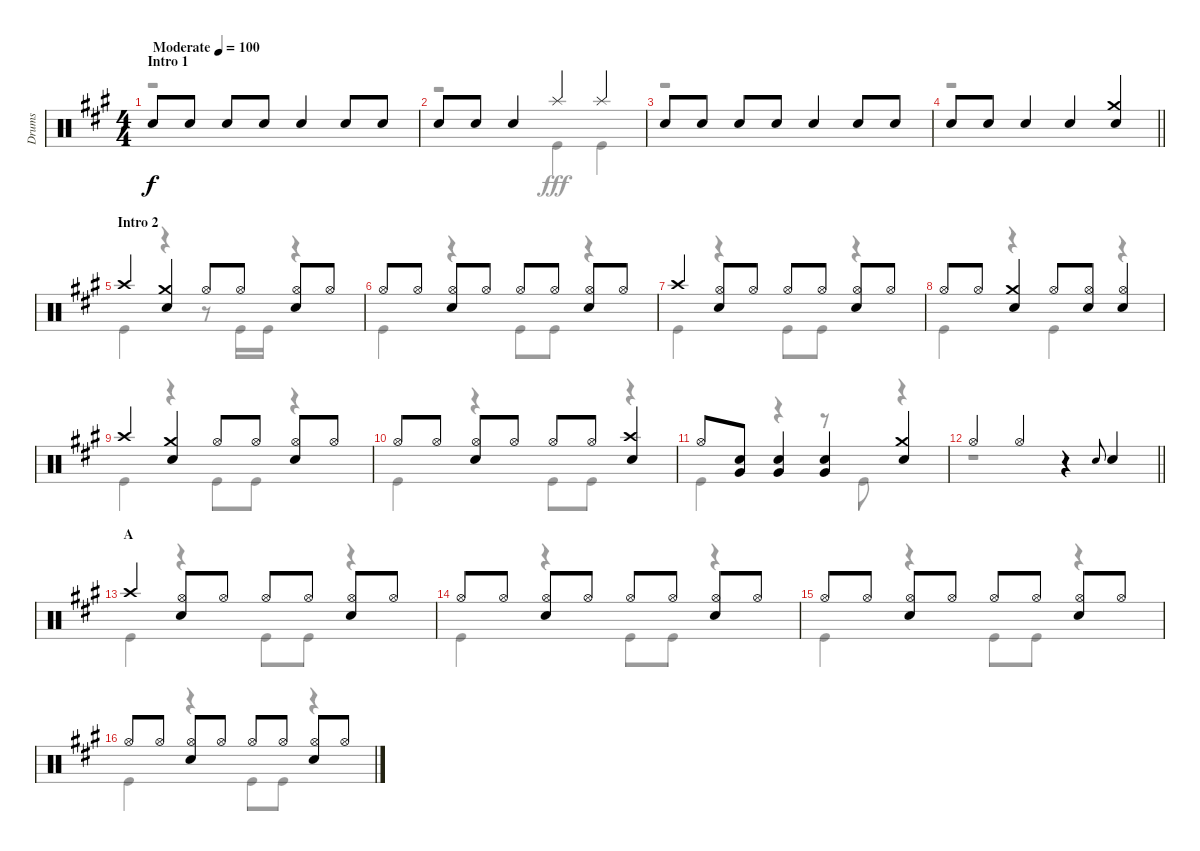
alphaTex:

\track ("Drums" "Drums") {instrument percussion}
\staff {score}
\articulation defaults
\voice
\ts (4 4)
\section ("" "Intro 1")
\tempo (100 "Moderate")
\clef neutral
\ks a "Snare (hit) 2".8{dy f} "Snare (hit) 2".8 "Snare (hit) 2".8 "Snare (hit) 2".8 "Snare (hit) 2".4 "Snare (hit) 2".8 "Snare (hit) 2".8
|
"Snare (hit) 2".8 "Snare (hit) 2".8 "Snare (hit) 2".4 "Splash (hit)".4 "Splash (hit)".4 |
"Snare (hit) 2".8 "Snare (hit) 2".8 "Snare (hit) 2".8 "Snare (hit) 2".8 "Snare (hit) 2".4 "Snare (hit) 2".8 "Snare (hit) 2".8 |
\barLineRight lightlight "Snare (hit) 2".8 "Snare (hit) 2".8 "Snare (hit) 2".4 "Snare (hit) 2".4
("Crash medium (hit)" "Snare (hit) 2").4 |
\section ("" "Intro 2")
"Crash high (hit)".4 ("Crash medium (hit)" "Snare (hit) 2").4 "Hi-Hat (open)".8 "Hi-Hat (open)".8 ("Hi-Hat (open)" "Snare (hit) 2").8 "Hi-Hat (open)".8 |
"Hi-Hat (open)".8 "Hi-Hat (open)".8 ("Hi-Hat (open)" "Snare (hit) 2").8 "Hi-Hat (open)".8 "Hi-Hat (open)".8 "Hi-Hat (open)".8 ("Hi-Hat (open)" "Snare (hit) 2").8 "Hi-Hat (open)".8 |
"Crash high (hit)".4 ("Hi-Hat (open)" "Snare (hit) 2").8 "Hi-Hat (open)".8 "Hi-Hat (open)".8 "Hi-Hat (open)".8 ("Hi-Hat (open)" "Snare (hit) 2").8 "Hi-Hat (open)".8 |
"Hi-Hat (open)".8 "Hi-Hat (open)".8 ("Crash medium (hit)" "Snare (hit) 2").4 "Hi-Hat (open)".8 ("Hi-Hat (open)" "Snare (hit) 2").8 ("Hi-Hat (open)" "Snare (hit) 2").4 |
"Crash high (hit)".4 ("Crash medium (hit)" "Snare (hit) 2").4 "Hi-Hat (open)".8 "Hi-Hat (open)".8 ("Hi-Hat (open)" "Snare (hit) 2").8 "Hi-Hat (open)".8 |
"Hi-Hat (open)".8 "Hi-Hat (open)".8 ("Hi-Hat (open)" "Snare (hit) 2").8 "Hi-Hat (open)".8 "Hi-Hat (open)".8 "Hi-Hat (open)".8 ("Crash high (hit)" "Snare (hit) 2").4 |
"Hi-Hat (open)".8 ("Snare (hit) 2" "Very Low Tom (hit)").8 ("Snare (hit) 2" "Very Low Tom (hit)").4 ("Snare (hit) 2" "Very Low Tom (hit)").4 ("Crash medium (hit)" "Snare (hit) 2").4 |
\barLineRight lightlight "Hi-Hat (open)".4 "Hi-Hat (open)".4
r.4 "Snare (hit) 2".8{gr onbeat} "Snare (hit) 2".4 |
\section ("" "A")
"Crash high (hit)".4 ("Hi-Hat (open)" "Snare (hit) 2").8 "Hi-Hat (open)".8 "Hi-Hat (open)".8 "Hi-Hat (open)".8 ("Hi-Hat (open)" "Snare (hit) 2").8 "Hi-Hat (open)".8 |
"Hi-Hat (open)".8 "Hi-Hat (open)".8 ("Hi-Hat (open)" "Snare (hit) 2").8 "Hi-Hat (open)".8 "Hi-Hat (open)".8 "Hi-Hat (open)".8 ("Hi-Hat (open)" "Snare (hit) 2").8 "Hi-Hat (open)".8 |
"Hi-Hat (open)".8 "Hi-Hat (open)".8 ("Hi-Hat (open)" "Snare (hit) 2").8 "Hi-Hat (open)".8 "Hi-Hat (open)".8 "Hi-Hat (open)".8 ("Hi-Hat (open)" "Snare (hit) 2").8 "Hi-Hat (open)".8 |
"Hi-Hat (open)".8 "Hi-Hat (open)".8 ("Hi-Hat (open)" "Snare (hit) 2").8 "Hi-Hat (open)".8 "Hi-Hat (open)".8 "Hi-Hat (open)".8 ("Hi-Hat (open)" "Snare (hit) 2").8 "Hi-Hat (open)".8
\voice
\clef neutral
\ottava regular
\simile none
\ks a
r.1{dy fff} |
r.2 "Kick (hit)".4 "Kick (hit)".4 |
r.1 |
\barLineRight lightlight
r.1 |
"Kick (hit)".4 r.4 r.8 "Kick (hit)".16 "Kick (hit)".16 r.4 |
"Kick (hit)".4 r.4 "Kick (hit)".8 "Kick (hit)".8 r.4 |
"Kick (hit)".4 r.4 "Kick (hit)".8 "Kick (hit)".8 r.4 |
"Kick (hit)".4 r.4 "Kick (hit)".4 r.4 |
"Kick (hit)".4 r.4 "Kick (hit)".8 "Kick (hit)".8 r.4 |
"Kick (hit)".4 r.4 "Kick (hit)".8 "Kick (hit)".8 r.4 |
"Kick (hit)".4 r.4 r.8 "Kick (hit)".8 r.4 |
\barLineRight lightlight
r.1 |
"Kick (hit)".4 r.4 "Kick (hit)".8 "Kick (hit)".8 r.4 |
"Kick (hit)".4 r.4 "Kick (hit)".8 "Kick (hit)".8 r.4 |
"Kick (hit)".4 r.4 "Kick (hit)".8 "Kick (hit)".8 r.4 |
"Kick (hit)".4 r.4 "Kick (hit)".8 "Kick (hit)".8 r.4
